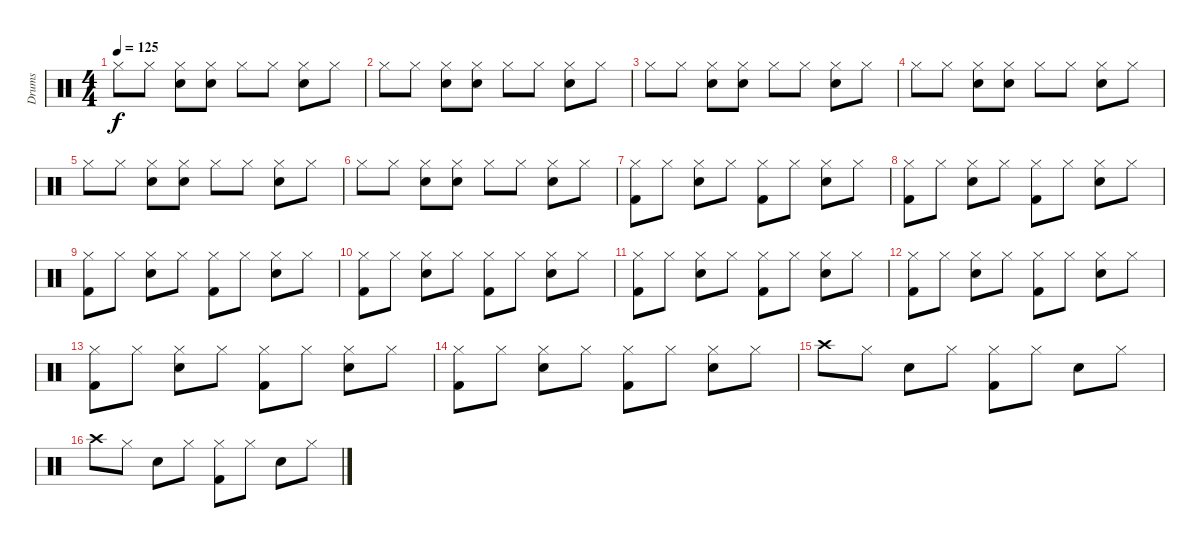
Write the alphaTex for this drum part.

\track ("Drums" "Drums") {instrument percussion}
\staff {score}
\articulation defaults
\ts (4 4)
\tempo 125
\clef neutral
\ks c "Hi-Hat (closed)".8{dy f} "Hi-Hat (closed)".8
("Snare (hit) 2" "Hi-Hat (closed)").8 ("Snare (hit) 2" "Hi-Hat (closed)").8 "Hi-Hat (closed)".8 "Hi-Hat (closed)".8 ("Snare (hit) 2" "Hi-Hat (closed)").8 "Hi-Hat (closed)".8 |
"Hi-Hat (closed)".8 "Hi-Hat (closed)".8 ("Snare (hit) 2" "Hi-Hat (closed)").8 ("Snare (hit) 2" "Hi-Hat (closed)").8 "Hi-Hat (closed)".8 "Hi-Hat (closed)".8 ("Snare (hit) 2" "Hi-Hat (closed)").8 "Hi-Hat (closed)".8 |
"Hi-Hat (closed)".8 "Hi-Hat (closed)".8 ("Snare (hit) 2" "Hi-Hat (closed)").8 ("Snare (hit) 2" "Hi-Hat (closed)").8 "Hi-Hat (closed)".8 "Hi-Hat (closed)".8 ("Snare (hit) 2" "Hi-Hat (closed)").8 "Hi-Hat (closed)".8 |
"Hi-Hat (closed)".8 "Hi-Hat (closed)".8 ("Snare (hit) 2" "Hi-Hat (closed)").8 ("Snare (hit) 2" "Hi-Hat (closed)").8 "Hi-Hat (closed)".8 "Hi-Hat (closed)".8 ("Snare (hit) 2" "Hi-Hat (closed)").8 "Hi-Hat (closed)".8 |
"Hi-Hat (closed)".8 "Hi-Hat (closed)".8 ("Snare (hit) 2" "Hi-Hat (closed)").8 ("Snare (hit) 2" "Hi-Hat (closed)").8 "Hi-Hat (closed)".8 "Hi-Hat (closed)".8 ("Snare (hit) 2" "Hi-Hat (closed)").8 "Hi-Hat (closed)".8 |
"Hi-Hat (closed)".8 "Hi-Hat (closed)".8 ("Snare (hit) 2" "Hi-Hat (closed)").8 ("Snare (hit) 2" "Hi-Hat (closed)").8 "Hi-Hat (closed)".8 "Hi-Hat (closed)".8 ("Snare (hit) 2" "Hi-Hat (closed)").8 "Hi-Hat (closed)".8 |
("Hi-Hat (closed)" "Kick (hit) 2").8 "Hi-Hat (closed)".8 ("Hi-Hat (closed)" "Snare (hit) 2").8 "Hi-Hat (closed)".8 ("Hi-Hat (closed)" "Kick (hit) 2").8 "Hi-Hat (closed)".8 ("Hi-Hat (closed)" "Snare (hit) 2").8 "Hi-Hat (closed)".8 |
("Hi-Hat (closed)" "Kick (hit) 2").8 "Hi-Hat (closed)".8 ("Hi-Hat (closed)" "Snare (hit) 2").8 "Hi-Hat (closed)".8 ("Hi-Hat (closed)" "Kick (hit) 2").8 "Hi-Hat (closed)".8 ("Hi-Hat (closed)" "Snare (hit) 2").8 "Hi-Hat (closed)".8 |
("Hi-Hat (closed)" "Kick (hit) 2").8 "Hi-Hat (closed)".8 ("Hi-Hat (closed)" "Snare (hit) 2").8 "Hi-Hat (closed)".8 ("Hi-Hat (closed)" "Kick (hit) 2").8 "Hi-Hat (closed)".8 ("Hi-Hat (closed)" "Snare (hit) 2").8 "Hi-Hat (closed)".8 |
("Hi-Hat (closed)" "Kick (hit) 2").8 "Hi-Hat (closed)".8 ("Hi-Hat (closed)" "Snare (hit) 2").8 "Hi-Hat (closed)".8 ("Hi-Hat (closed)" "Kick (hit) 2").8 "Hi-Hat (closed)".8 ("Hi-Hat (closed)" "Snare (hit) 2").8 "Hi-Hat (closed)".8 |
("Hi-Hat (closed)" "Kick (hit) 2").8 "Hi-Hat (closed)".8 ("Hi-Hat (closed)" "Snare (hit) 2").8 "Hi-Hat (closed)".8 ("Hi-Hat (closed)" "Kick (hit) 2").8 "Hi-Hat (closed)".8 ("Hi-Hat (closed)" "Snare (hit) 2").8 "Hi-Hat (closed)".8 |
("Hi-Hat (closed)" "Kick (hit) 2").8 "Hi-Hat (closed)".8 ("Hi-Hat (closed)" "Snare (hit) 2").8 "Hi-Hat (closed)".8 ("Hi-Hat (closed)" "Kick (hit) 2").8 "Hi-Hat (closed)".8 ("Hi-Hat (closed)" "Snare (hit) 2").8 "Hi-Hat (closed)".8 |
("Hi-Hat (closed)" "Kick (hit) 2").8 "Hi-Hat (closed)".8 ("Hi-Hat (closed)" "Snare (hit) 2").8 "Hi-Hat (closed)".8 ("Hi-Hat (closed)" "Kick (hit) 2").8 "Hi-Hat (closed)".8 ("Hi-Hat (closed)" "Snare (hit) 2").8 "Hi-Hat (closed)".8 |
("Hi-Hat (closed)" "Kick (hit) 2").8 "Hi-Hat (closed)".8 ("Hi-Hat (closed)" "Snare (hit) 2").8 "Hi-Hat (closed)".8 ("Hi-Hat (closed)" "Kick (hit) 2").8 "Hi-Hat (closed)".8 ("Hi-Hat (closed)" "Snare (hit) 2").8 "Hi-Hat (closed)".8 |
"Crash high (hit)".8 "Hi-Hat (closed)".8 "Snare (hit) 2".8 "Hi-Hat (closed)".8 ("Hi-Hat (closed)" "Kick (hit) 2").8 "Hi-Hat (closed)".8 "Snare (hit) 2".8 "Hi-Hat (closed)".8 |
"Crash high (hit)".8 "Hi-Hat (closed)".8 "Snare (hit) 2".8 "Hi-Hat (closed)".8 ("Hi-Hat (closed)" "Kick (hit) 2").8 "Hi-Hat (closed)".8 "Snare (hit) 2".8 "Hi-Hat (closed)".8
